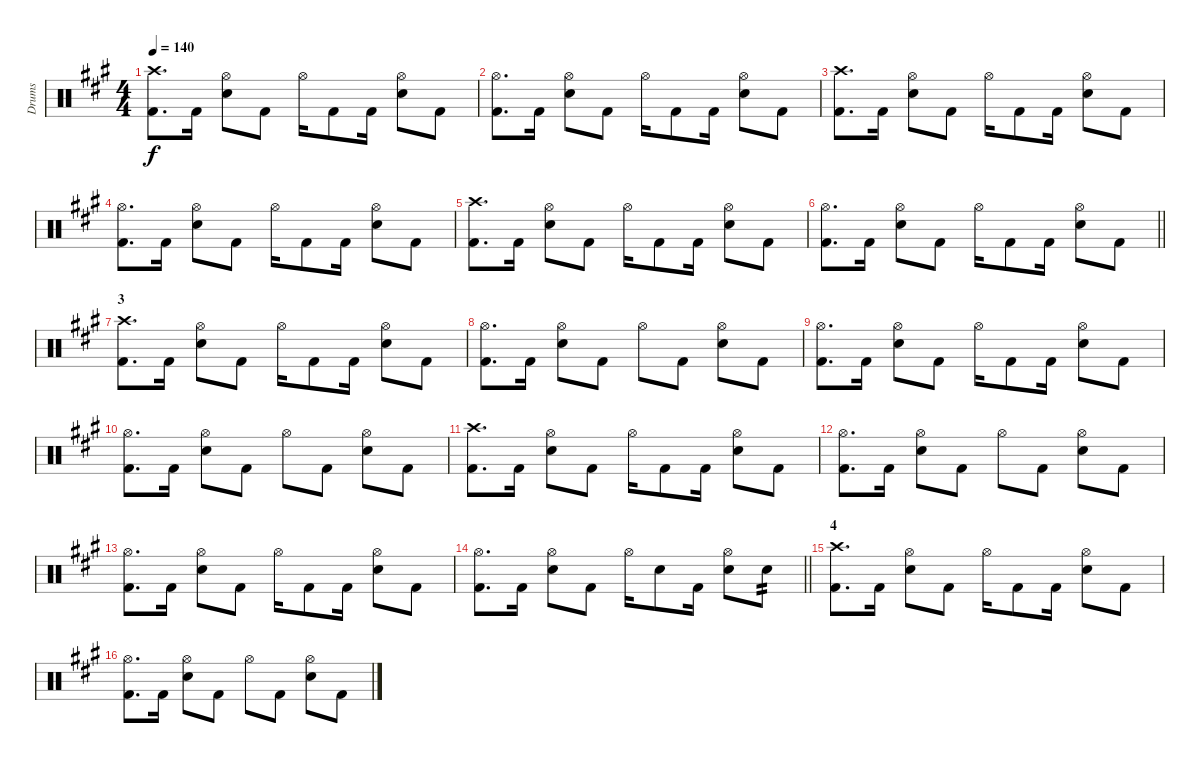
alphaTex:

\track ("Drums" "Drums") {instrument percussion}
\staff {score}
\articulation defaults
\ts (4 4)
\tempo 140
\clef neutral
\ks a
("Crash high (hit)" "Kick (hit) 2").8{d dy f} "Kick (hit) 2".16 ("Hi-Hat (open)" "Electric Snare (hit)").8 "Kick (hit) 2".8 "Hi-Hat (open)".16 "Kick (hit) 2".8 "Kick (hit) 2".16 ("Hi-Hat (open)" "Electric Snare (hit)").8 "Kick (hit) 2".8 |
("Hi-Hat (open)" "Kick (hit) 2").8{d} "Kick (hit) 2".16 ("Hi-Hat (open)" "Electric Snare (hit)").8 "Kick (hit) 2".8 "Hi-Hat (open)".16 "Kick (hit) 2".8 "Kick (hit) 2".16 ("Hi-Hat (open)" "Electric Snare (hit)").8 "Kick (hit) 2".8 |
("Crash high (hit)" "Kick (hit) 2").8{d} "Kick (hit) 2".16 ("Hi-Hat (open)" "Electric Snare (hit)").8 "Kick (hit) 2".8 "Hi-Hat (open)".16 "Kick (hit) 2".8 "Kick (hit) 2".16 ("Hi-Hat (open)" "Electric Snare (hit)").8 "Kick (hit) 2".8 |
("Hi-Hat (open)" "Kick (hit) 2").8{d} "Kick (hit) 2".16 ("Hi-Hat (open)" "Electric Snare (hit)").8 "Kick (hit) 2".8 "Hi-Hat (open)".16 "Kick (hit) 2".8 "Kick (hit) 2".16 ("Hi-Hat (open)" "Electric Snare (hit)").8 "Kick (hit) 2".8 |
("Crash high (hit)" "Kick (hit) 2").8{d} "Kick (hit) 2".16 ("Hi-Hat (open)" "Electric Snare (hit)").8 "Kick (hit) 2".8 "Hi-Hat (open)".16 "Kick (hit) 2".8 "Kick (hit) 2".16 ("Hi-Hat (open)" "Electric Snare (hit)").8 "Kick (hit) 2".8 |
\barLineRight lightlight
("Hi-Hat (open)" "Kick (hit) 2").8{d} "Kick (hit) 2".16 ("Hi-Hat (open)" "Electric Snare (hit)").8 "Kick (hit) 2".8 "Hi-Hat (open)".16 "Kick (hit) 2".8 "Kick (hit) 2".16 ("Hi-Hat (open)" "Electric Snare (hit)").8 "Kick (hit) 2".8 |
\section ("" "3")
("Crash high (hit)" "Kick (hit) 2").8{d} "Kick (hit) 2".16 ("Hi-Hat (open)" "Electric Snare (hit)").8 "Kick (hit) 2".8 "Hi-Hat (open)".16 "Kick (hit) 2".8 "Kick (hit) 2".16 ("Hi-Hat (open)" "Electric Snare (hit)").8 "Kick (hit) 2".8 |
("Hi-Hat (open)" "Kick (hit) 2").8{d} "Kick (hit) 2".16 ("Hi-Hat (open)" "Electric Snare (hit)").8 "Kick (hit) 2".8 "Hi-Hat (open)".8 "Kick (hit) 2".8 ("Hi-Hat (open)" "Electric Snare (hit)").8 "Kick (hit) 2".8 |
("Hi-Hat (open)" "Kick (hit) 2").8{d} "Kick (hit) 2".16 ("Hi-Hat (open)" "Electric Snare (hit)").8 "Kick (hit) 2".8 "Hi-Hat (open)".16 "Kick (hit) 2".8 "Kick (hit) 2".16 ("Hi-Hat (open)" "Electric Snare (hit)").8 "Kick (hit) 2".8 |
("Hi-Hat (open)" "Kick (hit) 2").8{d} "Kick (hit) 2".16 ("Hi-Hat (open)" "Electric Snare (hit)").8 "Kick (hit) 2".8 "Hi-Hat (open)".8 "Kick (hit) 2".8 ("Hi-Hat (open)" "Electric Snare (hit)").8 "Kick (hit) 2".8 |
("Crash high (hit)" "Kick (hit) 2").8{d} "Kick (hit) 2".16 ("Hi-Hat (open)" "Electric Snare (hit)").8 "Kick (hit) 2".8 "Hi-Hat (open)".16 "Kick (hit) 2".8 "Kick (hit) 2".16 ("Hi-Hat (open)" "Electric Snare (hit)").8 "Kick (hit) 2".8 |
("Hi-Hat (open)" "Kick (hit) 2").8{d} "Kick (hit) 2".16 ("Hi-Hat (open)" "Electric Snare (hit)").8 "Kick (hit) 2".8 "Hi-Hat (open)".8 "Kick (hit) 2".8 ("Hi-Hat (open)" "Electric Snare (hit)").8 "Kick (hit) 2".8 |
("Hi-Hat (open)" "Kick (hit) 2").8{d} "Kick (hit) 2".16 ("Hi-Hat (open)" "Electric Snare (hit)").8 "Kick (hit) 2".8 "Hi-Hat (open)".16 "Kick (hit) 2".8 "Kick (hit) 2".16 ("Hi-Hat (open)" "Electric Snare (hit)").8 "Kick (hit) 2".8 |
\barLineRight lightlight
("Hi-Hat (open)" "Kick (hit) 2").8{d} "Kick (hit) 2".16 ("Hi-Hat (open)" "Electric Snare (hit)").8 "Kick (hit) 2".8 "Hi-Hat (open)".16 "Electric Snare (hit)".8 "Kick (hit) 2".16 ("Hi-Hat (open)" "Electric Snare (hit)").8 "Electric Snare (hit)".8{tp 2} |
\section ("" "4")
("Crash high (hit)" "Kick (hit) 2").8{d} "Kick (hit) 2".16 ("Hi-Hat (open)" "Electric Snare (hit)").8 "Kick (hit) 2".8 "Hi-Hat (open)".16 "Kick (hit) 2".8 "Kick (hit) 2".16 ("Hi-Hat (open)" "Electric Snare (hit)").8 "Kick (hit) 2".8 |
("Hi-Hat (open)" "Kick (hit) 2").8{d} "Kick (hit) 2".16 ("Hi-Hat (open)" "Electric Snare (hit)").8 "Kick (hit) 2".8 "Hi-Hat (open)".8 "Kick (hit) 2".8 ("Hi-Hat (open)" "Electric Snare (hit)").8 "Kick (hit) 2".8
